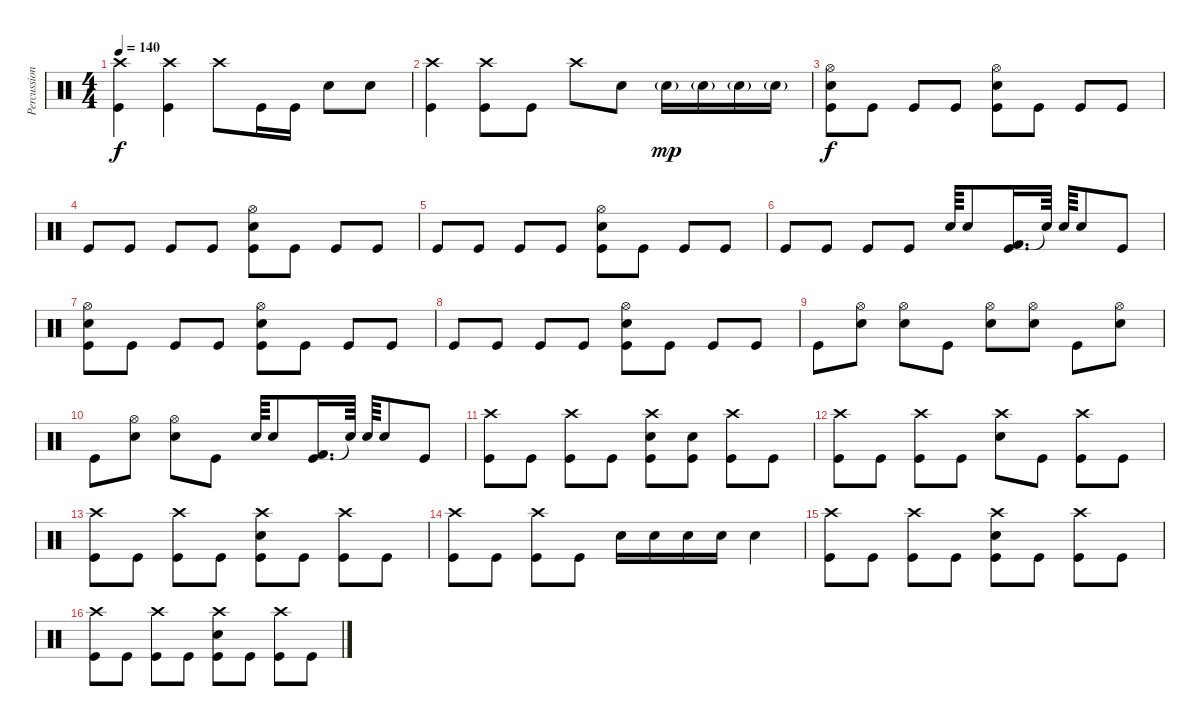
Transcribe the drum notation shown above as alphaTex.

\track ("Percussion" "Percussion") {instrument percussion}
\staff {score}
\articulation defaults
\ts (4 4)
\tempo 140
\clef neutral
\ks c
("Crash high (hit)" "Kick (hit)").4{dy f} ("Crash high (hit)" "Kick (hit)").4 "Crash high (hit)".8 "Kick (hit)".16 "Kick (hit)".16 "Electric Snare (hit)".8 "Electric Snare (hit)".8 |
("Crash high (hit)" "Kick (hit)").4 ("Crash high (hit)" "Kick (hit)").8 "Kick (hit)".8 "Crash high (hit)".8 "Snare (hit) 2".8 "Snare (hit) 2"{g}.16{dy mp} "Snare (hit) 2"{g}.16 "Snare (hit) 2"{g}.16 "Snare (hit) 2"{g}.16 |
("Electric Snare (hit)" "Hi-Hat (open)" "Kick (hit)").8{dy f} "Kick (hit)".8 "Kick (hit)".8 "Kick (hit)".8 ("Electric Snare (hit)" "Hi-Hat (open)" "Kick (hit)").8 "Kick (hit)".8 "Kick (hit)".8 "Kick (hit)".8 |
"Kick (hit)".8 "Kick (hit)".8 "Kick (hit)".8 "Kick (hit)".8 ("Hi-Hat (open)" "Electric Snare (hit)" "Kick (hit)").8 "Kick (hit)".8 "Kick (hit)".8 "Kick (hit)".8 |
"Kick (hit)".8 "Kick (hit)".8 "Kick (hit)".8 "Kick (hit)".8 ("Hi-Hat (open)" "Electric Snare (hit)" "Kick (hit)").8 "Kick (hit)".8 "Kick (hit)".8 "Kick (hit)".8 |
"Kick (hit)".8 "Kick (hit)".8 "Kick (hit)".8 "Kick (hit)".8 "Snare (hit) 2".64 "Snare (hit) 2".8 ("Kick (hit) 2" "Kick (hit)").16{d} "Snare (hit)"{t}.64 "Snare (hit) 2".64 "Snare (hit) 2".8 "Kick (hit)".8 |
("Electric Snare (hit)" "Hi-Hat (open)" "Kick (hit)").8 "Kick (hit)".8 "Kick (hit)".8 "Kick (hit)".8 ("Electric Snare (hit)" "Hi-Hat (open)" "Kick (hit)").8 "Kick (hit)".8 "Kick (hit)".8 "Kick (hit)".8 |
"Kick (hit)".8 "Kick (hit)".8 "Kick (hit)".8 "Kick (hit)".8 ("Hi-Hat (open)" "Electric Snare (hit)" "Kick (hit)").8 "Kick (hit)".8 "Kick (hit)".8 "Kick (hit)".8 |
"Kick (hit)".8 ("Hi-Hat (open)" "Snare (hit) 2").8 ("Hi-Hat (open)" "Snare (hit) 2").8 "Kick (hit)".8 ("Hi-Hat (open)" "Snare (hit) 2").8 ("Hi-Hat (open)" "Snare (hit) 2").8 "Kick (hit)".8 ("Hi-Hat (open)" "Snare (hit) 2").8 |
"Kick (hit)".8 ("Hi-Hat (open)" "Snare (hit) 2").8 ("Hi-Hat (open)" "Snare (hit) 2").8 "Kick (hit)".8 "Snare (hit) 2".64 "Snare (hit) 2".8 ("Kick (hit) 2" "Kick (hit)").16{d} "Snare (hit)"{t}.64 "Snare (hit) 2".64 "Snare (hit) 2".8 "Kick (hit)".8 |
("Crash high (hit)" "Kick (hit)").8 "Kick (hit)".8 ("Crash high (hit)" "Kick (hit)").8 "Kick (hit)".8 ("Crash high (hit)" "Electric Snare (hit)" "Kick (hit)").8 ("Electric Snare (hit)" "Kick (hit)").8 ("Crash high (hit)" "Kick (hit)").8 "Kick (hit)".8 |
("Crash high (hit)" "Kick (hit)").8 "Kick (hit)".8 ("Crash high (hit)" "Kick (hit)").8 "Kick (hit)".8 ("Crash high (hit)" "Electric Snare (hit)").8 "Kick (hit)".8 ("Crash high (hit)" "Kick (hit)").8 "Kick (hit)".8 |
("Crash high (hit)" "Kick (hit)").8 "Kick (hit)".8 ("Crash high (hit)" "Kick (hit)").8 "Kick (hit)".8 ("Crash high (hit)" "Electric Snare (hit)" "Kick (hit)").8 "Kick (hit)".8 ("Crash high (hit)" "Kick (hit)").8 "Kick (hit)".8 |
("Crash high (hit)" "Kick (hit)").8 "Kick (hit)".8 ("Crash high (hit)" "Kick (hit)").8 "Kick (hit)".8 "Electric Snare (hit)".16 "Electric Snare (hit)".16 "Electric Snare (hit)".16 "Electric Snare (hit)".16 "Electric Snare (hit)".4 |
("Crash high (hit)" "Kick (hit)").8 "Kick (hit)".8 ("Crash high (hit)" "Kick (hit)").8 "Kick (hit)".8 ("Crash high (hit)" "Electric Snare (hit)" "Kick (hit)").8 "Kick (hit)".8 ("Crash high (hit)" "Kick (hit)").8 "Kick (hit)".8 |
("Crash high (hit)" "Kick (hit)").8 "Kick (hit)".8 ("Crash high (hit)" "Kick (hit)").8 "Kick (hit)".8 ("Crash high (hit)" "Electric Snare (hit)" "Kick (hit)").8 "Kick (hit)".8 ("Crash high (hit)" "Kick (hit)").8 "Kick (hit)".8
